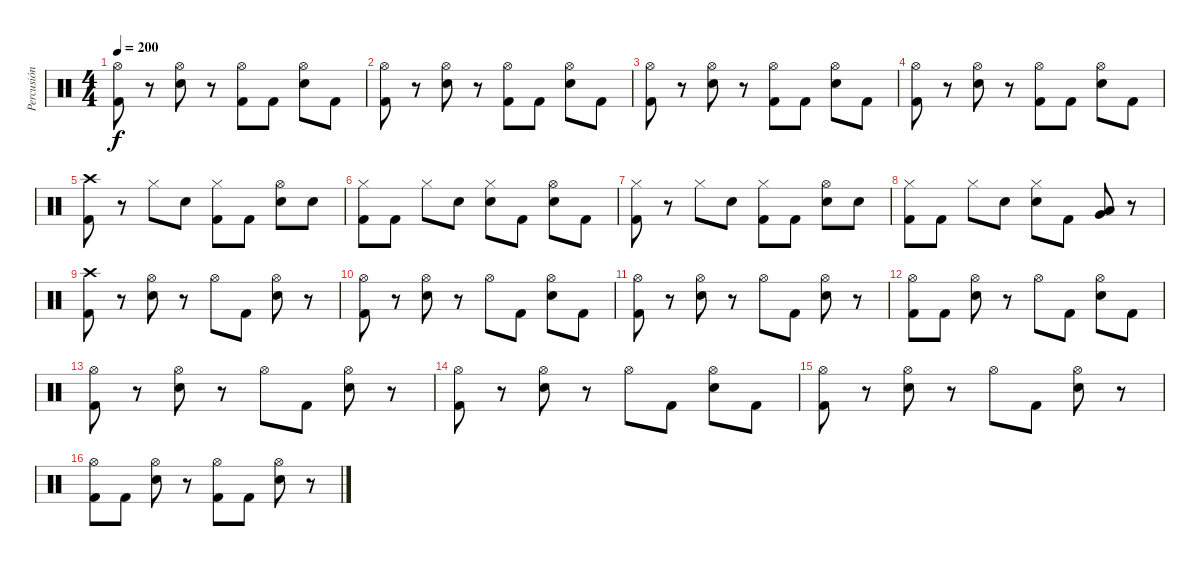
\track ("Percusión" "Percusión") {instrument percussion}
\staff {score}
\articulation defaults
\ts (4 4)
\tempo 200
\clef neutral
\ks c
("Hi-Hat (open)" "Kick (hit) 2").8{dy f} r.8 ("Hi-Hat (open)" "Electric Snare (hit)").8 r.8 ("Hi-Hat (open)" "Kick (hit) 2").8 "Kick (hit) 2".8 ("Hi-Hat (open)" "Electric Snare (hit)").8 "Kick (hit) 2".8 |
("Hi-Hat (open)" "Kick (hit) 2").8 r.8 ("Hi-Hat (open)" "Electric Snare (hit)").8 r.8 ("Hi-Hat (open)" "Kick (hit) 2").8 "Kick (hit) 2".8 ("Hi-Hat (open)" "Electric Snare (hit)").8 "Kick (hit) 2".8 |
("Hi-Hat (open)" "Kick (hit) 2").8 r.8 ("Hi-Hat (open)" "Electric Snare (hit)").8 r.8 ("Hi-Hat (open)" "Kick (hit) 2").8 "Kick (hit) 2".8 ("Hi-Hat (open)" "Electric Snare (hit)").8 "Kick (hit) 2".8 |
("Hi-Hat (open)" "Kick (hit) 2").8 r.8 ("Hi-Hat (open)" "Electric Snare (hit)").8 r.8 ("Hi-Hat (open)" "Kick (hit) 2").8 "Kick (hit) 2".8 ("Hi-Hat (open)" "Electric Snare (hit)").8 "Kick (hit) 2".8 |
("Crash high (hit)" "Kick (hit) 2").8 r.8 "Hi-Hat (closed)".8 "Electric Snare (hit)".8 ("Hi-Hat (closed)" "Kick (hit) 2").8 "Kick (hit) 2".8 ("Hi-Hat (open)" "Electric Snare (hit)").8 "Electric Snare (hit)".8 |
("Hi-Hat (closed)" "Kick (hit) 2").8 "Kick (hit) 2".8 "Hi-Hat (closed)".8 "Electric Snare (hit)".8 ("Hi-Hat (closed)" "Electric Snare (hit)").8 "Kick (hit) 2".8 ("Hi-Hat (open)" "Electric Snare (hit)").8 "Kick (hit) 2".8 |
("Hi-Hat (closed)" "Kick (hit) 2").8 r.8 "Hi-Hat (closed)".8 "Electric Snare (hit)".8 ("Hi-Hat (closed)" "Kick (hit) 2").8 "Kick (hit) 2".8 ("Hi-Hat (open)" "Electric Snare (hit)").8 "Electric Snare (hit)".8 |
("Hi-Hat (closed)" "Kick (hit) 2").8 "Kick (hit) 2".8 "Hi-Hat (closed)".8 "Electric Snare (hit)".8 ("Hi-Hat (closed)" "Electric Snare (hit)").8 "Kick (hit) 2".8 ("Very Low Tom (hit)" "Low Tom (hit)").8 r.8 |
("Crash high (hit)" "Kick (hit) 2").8 r.8 ("Hi-Hat (open)" "Electric Snare (hit)").8 r.8 "Hi-Hat (open)".8 "Kick (hit) 2".8 ("Hi-Hat (open)" "Electric Snare (hit)").8 r.8 |
("Hi-Hat (open)" "Kick (hit) 2").8 r.8 ("Hi-Hat (open)" "Electric Snare (hit)").8 r.8 "Hi-Hat (open)".8 "Kick (hit) 2".8 ("Hi-Hat (open)" "Electric Snare (hit)").8 "Kick (hit) 2".8 |
("Hi-Hat (open)" "Kick (hit) 2").8 r.8 ("Hi-Hat (open)" "Electric Snare (hit)").8 r.8 "Hi-Hat (open)".8 "Kick (hit) 2".8 ("Hi-Hat (open)" "Electric Snare (hit)").8 r.8 |
("Hi-Hat (open)" "Kick (hit) 2").8 "Kick (hit) 2".8 ("Hi-Hat (open)" "Electric Snare (hit)").8 r.8 "Hi-Hat (open)".8 "Kick (hit) 2".8 ("Hi-Hat (open)" "Electric Snare (hit)").8 "Kick (hit) 2".8 |
("Hi-Hat (open)" "Kick (hit) 2").8 r.8 ("Hi-Hat (open)" "Electric Snare (hit)").8 r.8 "Hi-Hat (open)".8 "Kick (hit) 2".8 ("Hi-Hat (open)" "Electric Snare (hit)").8 r.8 |
("Hi-Hat (open)" "Kick (hit) 2").8 r.8 ("Hi-Hat (open)" "Electric Snare (hit)").8 r.8 "Hi-Hat (open)".8 "Kick (hit) 2".8 ("Hi-Hat (open)" "Electric Snare (hit)").8 "Kick (hit) 2".8 |
("Hi-Hat (open)" "Kick (hit) 2").8 r.8 ("Hi-Hat (open)" "Electric Snare (hit)").8 r.8 "Hi-Hat (open)".8 "Kick (hit) 2".8 ("Hi-Hat (open)" "Electric Snare (hit)").8 r.8 |
("Hi-Hat (open)" "Kick (hit) 2").8 "Kick (hit) 2".8 ("Hi-Hat (open)" "Electric Snare (hit)").8 r.8 ("Hi-Hat (open)" "Kick (hit) 2").8 "Kick (hit) 2".8 ("Hi-Hat (open)" "Electric Snare (hit)").8 r.8
